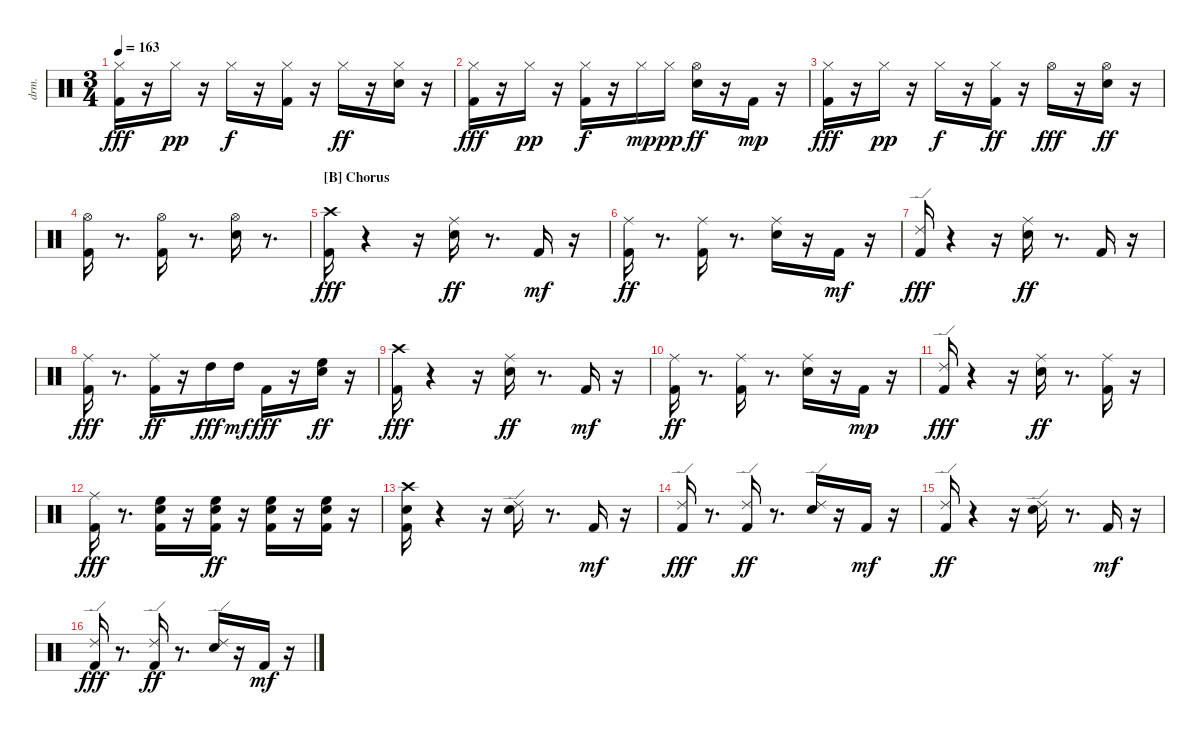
\bracketExtendMode nobrackets
\track ("EZdrummer 3" "drm.") {instrument percussion}
\staff {score}
\articulation defaults
\ts (3 4)
\tempo 163
\clef neutral
\ks aminor
("Kick (hit) 2" "Hi-Hat (closed)"{acc #}).16{dy fff} r.16 "Hi-Hat (closed)"{acc #}.16{dy pp} r.16 "Hi-Hat (closed)"{acc #}.16{dy f} r.16 ("Kick (hit) 2" "Hi-Hat (closed)"{acc #}).16 r.16 "Hi-Hat (closed)"{acc #}.16{dy ff} r.16 ("Snare (hit) 2" "Hi-Hat (closed)"{acc #}).16 r.16 |
("Kick (hit) 2" "Hi-Hat (closed)"{acc #}).16{dy fff} r.16 "Hi-Hat (closed)"{acc #}.16{dy pp} r.16 ("Kick (hit) 2" "Hi-Hat (closed)"{acc #}).16{dy f} r.16 "Hi-Hat (closed)"{acc #}.16{dy mp} "Hi-Hat (closed)"{acc #}.16{dy pp} ("Snare (hit) 2" "Hi-Hat (open)"{acc #}).16{dy ff} r.16 "Kick (hit) 2".16{dy mp} r.16 |
("Kick (hit) 2" "Hi-Hat (closed)"{acc #}).16{dy fff} r.16 "Hi-Hat (closed)"{acc #}.16{dy pp} r.16 "Hi-Hat (closed)"{acc #}.16{dy f} r.16 ("Kick (hit) 2" "Hi-Hat (closed)"{acc #}).16{dy ff} r.16 "Hi-Hat (open)"{acc #}.16{dy fff} r.16 ("Snare (hit) 2" "Hi-Hat (open)"{acc #}).16{dy ff} r.16 |
("Kick (hit) 2" "Hi-Hat (open)"{acc #}).16 r.8{d} ("Kick (hit) 2" "Hi-Hat (open)"{acc #}).16 r.8{d} ("Snare (hit) 2" "Hi-Hat (open)"{acc #}).16 r.8{d} |
\section ("B" "Chorus")
("Kick (hit) 2" "Crash high (hit)"{acc #}).16{dy fff} r.4 r.16 ("Snare (hit) 2" "Ride (middle)"{acc #}).16{dy ff} r.8{d} "Kick (hit) 2".16{dy mf} r.16 |
("Kick (hit) 2" "Ride (middle)"{acc #}).16{dy ff} r.8{d} ("Kick (hit) 2" "Ride (middle)"{acc #}).16 r.8{d} ("Snare (hit) 2" "Ride (middle)"{acc #}).16 r.16 "Kick (hit) 2".16{dy mf} r.16 |
("Kick (hit) 2" "Ride (edge) 2").16{dy fff} r.4 r.16 ("Snare (hit) 2" "Ride (middle)"{acc #}).16{dy ff} r.8{d} "Kick (hit) 2".16 r.16 |
("Kick (hit) 2" "Ride (middle)"{acc #}).16{dy fff} r.8{d} ("Kick (hit) 2" "Ride (middle)"{acc #}).16{dy ff} r.16 "High Tom (hit)".16{dy fff} "High Tom (hit)".16{dy mf} "Kick (hit) 2".16{dy fff} r.16 ("Snare (hit) 2" "High Floor Tom (hit)").16{dy ff} r.16 |
("Kick (hit) 2" "Crash high (hit)"{acc #}).16{dy fff} r.4 r.16 ("Snare (hit) 2" "Ride (middle)"{acc #}).16{dy ff} r.8{d} "Kick (hit) 2".16{dy mf} r.16 |
("Kick (hit) 2" "Ride (middle)"{acc #}).16{dy ff} r.8{d} ("Kick (hit) 2" "Ride (middle)"{acc #}).16 r.8{d} ("Snare (hit) 2" "Ride (middle)"{acc #}).16 r.16 "Kick (hit) 2".16{dy mp} r.16 |
("Kick (hit) 2" "Ride (edge) 2").16{dy fff} r.4 r.16 ("Snare (hit) 2" "Ride (middle)"{acc #}).16{dy ff} r.8{d} ("Kick (hit) 2" "Ride (middle)"{acc #}).16 r.16 |
("Kick (hit) 2" "Ride (middle)"{acc #}).16{dy fff} r.8{d} ("Kick (hit) 2" "Snare (hit) 2" "High Floor Tom (hit)").16 r.16 ("Kick (hit) 2" "Snare (hit) 2" "High Floor Tom (hit)").16{dy ff} r.16 ("Kick (hit) 2" "Snare (hit) 2" "High Floor Tom (hit)").16 r.16 ("Kick (hit) 2" "Snare (hit) 2" "High Floor Tom (hit)").16 r.16 |
("Kick (hit) 2" "Snare (hit) 2" "Crash high (hit)"{acc #}).16 r.4 r.16 ("Snare (hit) 2" "Ride (edge) 2").16 r.8{d} "Kick (hit) 2".16{dy mf} r.16 |
("Kick (hit) 2" "Ride (edge) 2").16{dy fff} r.8{d} ("Kick (hit) 2" "Ride (edge) 2").16{dy ff} r.8{d} ("Snare (hit) 2" "Ride (edge) 2").16 r.16 "Kick (hit) 2".16{dy mf} r.16 |
("Kick (hit) 2" "Ride (edge) 2").16{dy ff} r.4 r.16 ("Snare (hit) 2" "Ride (edge) 2").16 r.8{d} "Kick (hit) 2".16{dy mf} r.16 |
("Kick (hit) 2" "Ride (edge) 2").16{dy fff} r.8{d} ("Kick (hit) 2" "Ride (edge) 2").16{dy ff} r.8{d} ("Snare (hit) 2" "Ride (edge) 2").16 r.16 "Kick (hit) 2".16{dy mf} r.16
